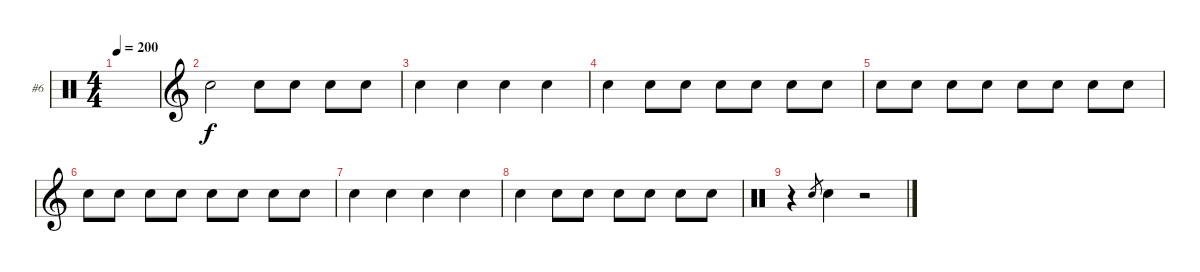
\bracketExtendMode groupsimilarinstruments
\firstSystemTrackNameOrientation horizontal
\otherSystemsTrackNameOrientation horizontal
\track ("Shawn \"Clown\" Crahan" "#6") {instrument percussion}
\staff {score}
\articulation defaults
\ts (4 4)
\tempo 200
\clef neutral
\ks c
|
\clef g2 "Snare (hit) 2".2 "Snare (hit) 2".8 "Snare (hit) 2".8 "Snare (hit) 2".8 "Snare (hit) 2".8
|
"Snare (hit) 2".4 "Snare (hit) 2".4 "Snare (hit) 2".4 "Snare (hit) 2".4 |
"Snare (hit) 2".4 "Snare (hit) 2".8 "Snare (hit) 2".8 "Snare (hit) 2".8 "Snare (hit) 2".8 "Snare (hit) 2".8 "Snare (hit) 2".8 |
"Snare (hit) 2".8 "Snare (hit) 2".8 "Snare (hit) 2".8 "Snare (hit) 2".8 "Snare (hit) 2".8 "Snare (hit) 2".8 "Snare (hit) 2".8 "Snare (hit) 2".8 |
"Snare (hit) 2".8 "Snare (hit) 2".8 "Snare (hit) 2".8 "Snare (hit) 2".8 "Snare (hit) 2".8 "Snare (hit) 2".8 "Snare (hit) 2".8 "Snare (hit) 2".8 |
"Snare (hit) 2".4 "Snare (hit) 2".4 "Snare (hit) 2".4 "Snare (hit) 2".4 |
"Snare (hit) 2".4 "Snare (hit) 2".8 "Snare (hit) 2".8 "Snare (hit) 2".8 "Snare (hit) 2".8 "Snare (hit) 2".8 "Snare (hit) 2".8 |
\clef neutral
r.4 "Snare (hit) 2".8{gr} "Snare (hit) 2".4 r.2
